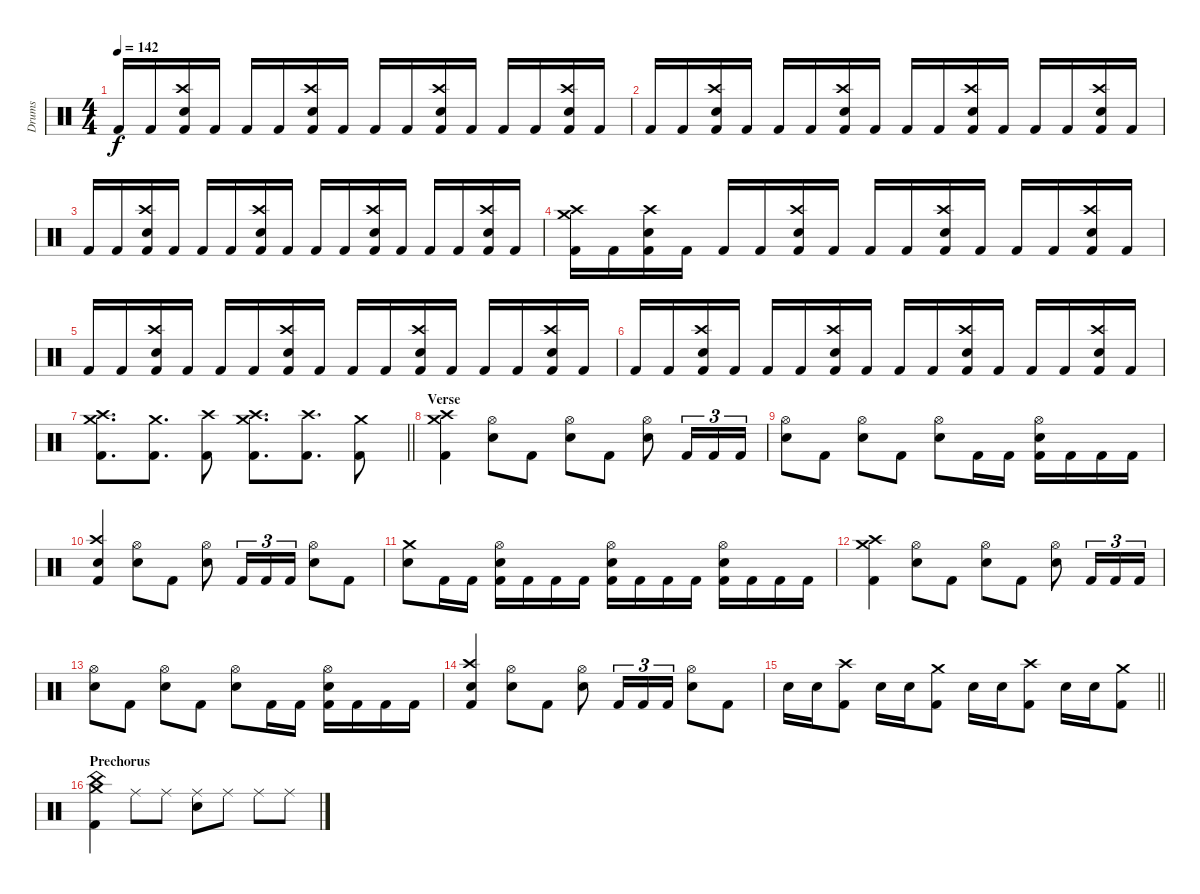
\track ("Drums" "Drums") {instrument percussion}
\staff {score}
\articulation defaults
\ts (4 4)
\tempo 142
\clef neutral
\ks c "Kick (hit) 2".16{dy f} "Kick (hit) 2".16
("Crash high (hit)" "Electric Snare (hit)" "Kick (hit) 2").16 "Kick (hit) 2".16 "Kick (hit) 2".16 "Kick (hit) 2".16 ("Crash high (hit)" "Electric Snare (hit)" "Kick (hit) 2").16 "Kick (hit) 2".16 "Kick (hit) 2".16 "Kick (hit) 2".16 ("Crash high (hit)" "Electric Snare (hit)" "Kick (hit) 2").16 "Kick (hit) 2".16 "Kick (hit) 2".16 "Kick (hit) 2".16 ("Crash high (hit)" "Electric Snare (hit)" "Kick (hit) 2").16 "Kick (hit) 2".16 |
"Kick (hit) 2".16 "Kick (hit) 2".16 ("Crash high (hit)" "Electric Snare (hit)" "Kick (hit) 2").16 "Kick (hit) 2".16 "Kick (hit) 2".16 "Kick (hit) 2".16 ("Crash high (hit)" "Electric Snare (hit)" "Kick (hit) 2").16 "Kick (hit) 2".16 "Kick (hit) 2".16 "Kick (hit) 2".16 ("Crash high (hit)" "Electric Snare (hit)" "Kick (hit) 2").16 "Kick (hit) 2".16 "Kick (hit) 2".16 "Kick (hit) 2".16 ("Crash high (hit)" "Electric Snare (hit)" "Kick (hit) 2").16 "Kick (hit) 2".16 |
"Kick (hit) 2".16 "Kick (hit) 2".16 ("Crash high (hit)" "Electric Snare (hit)" "Kick (hit) 2").16 "Kick (hit) 2".16 "Kick (hit) 2".16 "Kick (hit) 2".16 ("Crash high (hit)" "Electric Snare (hit)" "Kick (hit) 2").16 "Kick (hit) 2".16 "Kick (hit) 2".16 "Kick (hit) 2".16 ("Crash high (hit)" "Electric Snare (hit)" "Kick (hit) 2").16 "Kick (hit) 2".16 "Kick (hit) 2".16 "Kick (hit) 2".16 ("Crash high (hit)" "Electric Snare (hit)" "Kick (hit) 2").16 "Kick (hit) 2".16 |
("Crash high (hit)" "Crash medium (hit)" "Kick (hit) 2").16 "Kick (hit) 2".16 ("Crash high (hit)" "Electric Snare (hit)" "Kick (hit) 2").16 "Kick (hit) 2".16 "Kick (hit) 2".16 "Kick (hit) 2".16 ("Crash high (hit)" "Electric Snare (hit)" "Kick (hit) 2").16 "Kick (hit) 2".16 "Kick (hit) 2".16 "Kick (hit) 2".16 ("Crash high (hit)" "Electric Snare (hit)" "Kick (hit) 2").16 "Kick (hit) 2".16 "Kick (hit) 2".16 "Kick (hit) 2".16 ("Crash high (hit)" "Electric Snare (hit)" "Kick (hit) 2").16 "Kick (hit) 2".16 |
"Kick (hit) 2".16 "Kick (hit) 2".16 ("Crash high (hit)" "Electric Snare (hit)" "Kick (hit) 2").16 "Kick (hit) 2".16 "Kick (hit) 2".16 "Kick (hit) 2".16 ("Crash high (hit)" "Electric Snare (hit)" "Kick (hit) 2").16 "Kick (hit) 2".16 "Kick (hit) 2".16 "Kick (hit) 2".16 ("Crash high (hit)" "Electric Snare (hit)" "Kick (hit) 2").16 "Kick (hit) 2".16 "Kick (hit) 2".16 "Kick (hit) 2".16 ("Crash high (hit)" "Electric Snare (hit)" "Kick (hit) 2").16 "Kick (hit) 2".16 |
"Kick (hit) 2".16 "Kick (hit) 2".16 ("Crash high (hit)" "Electric Snare (hit)" "Kick (hit) 2").16 "Kick (hit) 2".16 "Kick (hit) 2".16 "Kick (hit) 2".16 ("Crash high (hit)" "Electric Snare (hit)" "Kick (hit) 2").16 "Kick (hit) 2".16 "Kick (hit) 2".16 "Kick (hit) 2".16 ("Crash high (hit)" "Electric Snare (hit)" "Kick (hit) 2").16 "Kick (hit) 2".16 "Kick (hit) 2".16 "Kick (hit) 2".16 ("Crash high (hit)" "Electric Snare (hit)" "Kick (hit) 2").16 "Kick (hit) 2".16 |
\barLineRight lightlight
("Crash high (hit)" "Crash medium (hit)" "Kick (hit) 2").8{d} ("Crash medium (hit)" "Kick (hit) 2").8{d} ("Crash high (hit)" "Kick (hit) 2").8 ("Crash medium (hit)" "Crash high (hit)" "Kick (hit) 2").8{d} ("Crash high (hit)" "Kick (hit) 2").8{d} ("Crash medium (hit)" "Kick (hit) 2").8 |
\section ("" "Verse")
("Crash high (hit)" "Crash medium (hit)" "Kick (hit) 2").4 ("Hi-Hat (open)" "Electric Snare (hit)").8 "Kick (hit) 2".8 ("Hi-Hat (open)" "Electric Snare (hit)").8 "Kick (hit) 2".8 ("Hi-Hat (open)" "Electric Snare (hit)").8 "Kick (hit) 2".16{tu (3 2)} "Kick (hit) 2".16{tu (3 2)} "Kick (hit) 2".16{tu (3 2)} |
("Hi-Hat (open)" "Electric Snare (hit)").8 "Kick (hit) 2".8 ("Hi-Hat (open)" "Electric Snare (hit)").8 "Kick (hit) 2".8 ("Hi-Hat (open)" "Electric Snare (hit)").8 "Kick (hit) 2".16 "Kick (hit) 2".16 ("Hi-Hat (open)" "Electric Snare (hit)" "Kick (hit) 2").16 "Kick (hit) 2".16 "Kick (hit) 2".16 "Kick (hit) 2".16 |
("Crash high (hit)" "Electric Snare (hit)" "Kick (hit) 2").4 ("Hi-Hat (open)" "Electric Snare (hit)").8 "Kick (hit) 2".8 ("Hi-Hat (open)" "Electric Snare (hit)").8 "Kick (hit) 2".16{tu (3 2)} "Kick (hit) 2".16{tu (3 2)} "Kick (hit) 2".16{tu (3 2)} ("Hi-Hat (open)" "Electric Snare (hit)").8 "Kick (hit) 2".8 |
("Crash medium (hit)" "Electric Snare (hit)").8 "Kick (hit) 2".16 "Kick (hit) 2".16 ("Hi-Hat (open)" "Electric Snare (hit)" "Kick (hit) 2").16 "Kick (hit) 2".16 "Kick (hit) 2".16 "Kick (hit) 2".16 ("Hi-Hat (open)" "Electric Snare (hit)" "Kick (hit) 2").16 "Kick (hit) 2".16 "Kick (hit) 2".16 "Kick (hit) 2".16 ("Hi-Hat (open)" "Electric Snare (hit)" "Kick (hit) 2").16 "Kick (hit) 2".16 "Kick (hit) 2".16 "Kick (hit) 2".16 |
("Crash high (hit)" "Crash medium (hit)" "Kick (hit) 2").4 ("Hi-Hat (open)" "Electric Snare (hit)").8 "Kick (hit) 2".8 ("Hi-Hat (open)" "Electric Snare (hit)").8 "Kick (hit) 2".8 ("Hi-Hat (open)" "Electric Snare (hit)").8 "Kick (hit) 2".16{tu (3 2)} "Kick (hit) 2".16{tu (3 2)} "Kick (hit) 2".16{tu (3 2)} |
("Hi-Hat (open)" "Electric Snare (hit)").8 "Kick (hit) 2".8 ("Hi-Hat (open)" "Electric Snare (hit)").8 "Kick (hit) 2".8 ("Hi-Hat (open)" "Electric Snare (hit)").8 "Kick (hit) 2".16 "Kick (hit) 2".16 ("Hi-Hat (open)" "Electric Snare (hit)" "Kick (hit) 2").16 "Kick (hit) 2".16 "Kick (hit) 2".16 "Kick (hit) 2".16 |
("Crash high (hit)" "Electric Snare (hit)" "Kick (hit) 2").4 ("Hi-Hat (open)" "Electric Snare (hit)").8 "Kick (hit) 2".8 ("Hi-Hat (open)" "Electric Snare (hit)").8 "Kick (hit) 2".16{tu (3 2)} "Kick (hit) 2".16{tu (3 2)} "Kick (hit) 2".16{tu (3 2)} ("Hi-Hat (open)" "Electric Snare (hit)").8 "Kick (hit) 2".8 |
\barLineRight lightlight "Electric Snare (hit)".16 "Electric Snare (hit)".16
("Crash high (hit)" "Kick (hit) 2").8 "Electric Snare (hit)".16 "Electric Snare (hit)".16 ("Crash medium (hit)" "Kick (hit) 2").8 "Electric Snare (hit)".16 "Electric Snare (hit)".16 ("Crash high (hit)" "Kick (hit) 2").8 "Electric Snare (hit)".16 "Electric Snare (hit)".16 ("Crash medium (hit)" "Kick (hit) 2").8 |
\section ("" "Prechorus")
("Crash medium (hit)" "China (hit)" "Kick (hit) 2").4 "Ride (middle)".8 "Ride (middle)".8 ("Ride (middle)" "Electric Snare (hit)").8 "Ride (middle)".8 "Ride (middle)".8 "Ride (middle)".8
